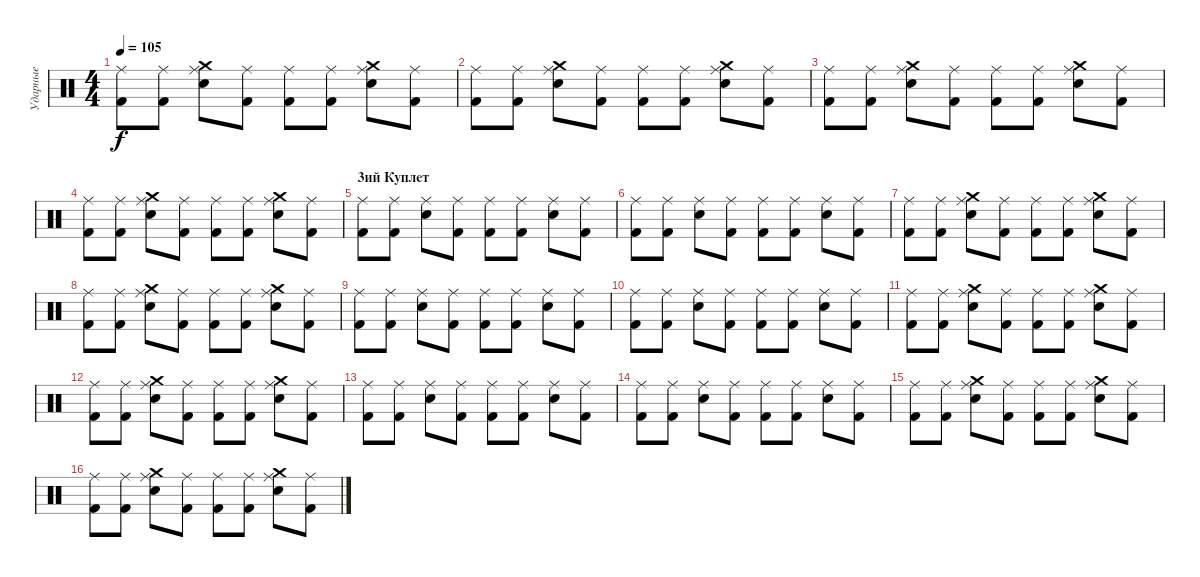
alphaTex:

\track ("Ударные" "Ударные") {instrument percussion}
\staff {score}
\articulation defaults
\ts (4 4)
\tempo 105
\clef neutral
\ks c
("Ride (middle)" "Kick (hit) 2").8{dy f} ("Ride (middle)" "Kick (hit) 2").8 ("Crash medium (hit)" "Ride (middle)" "Electric Snare (hit)").8 ("Ride (middle)" "Kick (hit) 2").8 ("Ride (middle)" "Kick (hit) 2").8 ("Ride (middle)" "Kick (hit) 2").8 ("Crash medium (hit)" "Ride (middle)" "Electric Snare (hit)").8 ("Ride (middle)" "Kick (hit) 2").8 |
("Ride (middle)" "Kick (hit) 2").8 ("Ride (middle)" "Kick (hit) 2").8 ("Crash medium (hit)" "Ride (middle)" "Electric Snare (hit)").8 ("Ride (middle)" "Kick (hit) 2").8 ("Ride (middle)" "Kick (hit) 2").8 ("Ride (middle)" "Kick (hit) 2").8 ("Crash medium (hit)" "Ride (middle)" "Electric Snare (hit)").8 ("Ride (middle)" "Kick (hit) 2").8 |
("Ride (middle)" "Kick (hit) 2").8 ("Ride (middle)" "Kick (hit) 2").8 ("Crash medium (hit)" "Ride (middle)" "Electric Snare (hit)").8 ("Ride (middle)" "Kick (hit) 2").8 ("Ride (middle)" "Kick (hit) 2").8 ("Ride (middle)" "Kick (hit) 2").8 ("Crash medium (hit)" "Ride (middle)" "Electric Snare (hit)").8 ("Ride (middle)" "Kick (hit) 2").8 |
("Ride (middle)" "Kick (hit) 2").8 ("Ride (middle)" "Kick (hit) 2").8 ("Crash medium (hit)" "Ride (middle)" "Electric Snare (hit)").8 ("Ride (middle)" "Kick (hit) 2").8 ("Ride (middle)" "Kick (hit) 2").8 ("Ride (middle)" "Kick (hit) 2").8 ("Crash medium (hit)" "Ride (middle)" "Electric Snare (hit)").8 ("Ride (middle)" "Kick (hit) 2").8 |
\section ("" "3ий Куплет")
("Ride (middle)" "Kick (hit) 2").8 ("Ride (middle)" "Kick (hit) 2").8 ("Ride (middle)" "Electric Snare (hit)").8 ("Ride (middle)" "Kick (hit) 2").8 ("Ride (middle)" "Kick (hit) 2").8 ("Ride (middle)" "Kick (hit) 2").8 ("Ride (middle)" "Electric Snare (hit)").8 ("Ride (middle)" "Kick (hit) 2").8 |
("Ride (middle)" "Kick (hit) 2").8 ("Ride (middle)" "Kick (hit) 2").8 ("Ride (middle)" "Electric Snare (hit)").8 ("Ride (middle)" "Kick (hit) 2").8 ("Ride (middle)" "Kick (hit) 2").8 ("Ride (middle)" "Kick (hit) 2").8 ("Ride (middle)" "Electric Snare (hit)").8 ("Ride (middle)" "Kick (hit) 2").8 |
("Ride (middle)" "Kick (hit) 2").8 ("Ride (middle)" "Kick (hit) 2").8 ("Crash medium (hit)" "Ride (middle)" "Electric Snare (hit)").8 ("Ride (middle)" "Kick (hit) 2").8 ("Ride (middle)" "Kick (hit) 2").8 ("Ride (middle)" "Kick (hit) 2").8 ("Crash medium (hit)" "Ride (middle)" "Electric Snare (hit)").8 ("Ride (middle)" "Kick (hit) 2").8 |
("Ride (middle)" "Kick (hit) 2").8 ("Ride (middle)" "Kick (hit) 2").8 ("Crash medium (hit)" "Ride (middle)" "Electric Snare (hit)").8 ("Ride (middle)" "Kick (hit) 2").8 ("Ride (middle)" "Kick (hit) 2").8 ("Ride (middle)" "Kick (hit) 2").8 ("Crash medium (hit)" "Ride (middle)" "Electric Snare (hit)").8 ("Ride (middle)" "Kick (hit) 2").8 |
("Ride (middle)" "Kick (hit) 2").8 ("Ride (middle)" "Kick (hit) 2").8 ("Ride (middle)" "Electric Snare (hit)").8 ("Ride (middle)" "Kick (hit) 2").8 ("Ride (middle)" "Kick (hit) 2").8 ("Ride (middle)" "Kick (hit) 2").8 ("Ride (middle)" "Electric Snare (hit)").8 ("Ride (middle)" "Kick (hit) 2").8 |
("Ride (middle)" "Kick (hit) 2").8 ("Ride (middle)" "Kick (hit) 2").8 ("Ride (middle)" "Electric Snare (hit)").8 ("Ride (middle)" "Kick (hit) 2").8 ("Ride (middle)" "Kick (hit) 2").8 ("Ride (middle)" "Kick (hit) 2").8 ("Ride (middle)" "Electric Snare (hit)").8 ("Ride (middle)" "Kick (hit) 2").8 |
("Ride (middle)" "Kick (hit) 2").8 ("Ride (middle)" "Kick (hit) 2").8 ("Crash medium (hit)" "Ride (middle)" "Electric Snare (hit)").8 ("Ride (middle)" "Kick (hit) 2").8 ("Ride (middle)" "Kick (hit) 2").8 ("Ride (middle)" "Kick (hit) 2").8 ("Crash medium (hit)" "Ride (middle)" "Electric Snare (hit)").8 ("Ride (middle)" "Kick (hit) 2").8 |
("Ride (middle)" "Kick (hit) 2").8 ("Ride (middle)" "Kick (hit) 2").8 ("Crash medium (hit)" "Ride (middle)" "Electric Snare (hit)").8 ("Ride (middle)" "Kick (hit) 2").8 ("Ride (middle)" "Kick (hit) 2").8 ("Ride (middle)" "Kick (hit) 2").8 ("Crash medium (hit)" "Ride (middle)" "Electric Snare (hit)").8 ("Ride (middle)" "Kick (hit) 2").8 |
("Ride (middle)" "Kick (hit) 2").8 ("Ride (middle)" "Kick (hit) 2").8 ("Ride (middle)" "Electric Snare (hit)").8 ("Ride (middle)" "Kick (hit) 2").8 ("Ride (middle)" "Kick (hit) 2").8 ("Ride (middle)" "Kick (hit) 2").8 ("Ride (middle)" "Electric Snare (hit)").8 ("Ride (middle)" "Kick (hit) 2").8 |
("Ride (middle)" "Kick (hit) 2").8 ("Ride (middle)" "Kick (hit) 2").8 ("Ride (middle)" "Electric Snare (hit)").8 ("Ride (middle)" "Kick (hit) 2").8 ("Ride (middle)" "Kick (hit) 2").8 ("Ride (middle)" "Kick (hit) 2").8 ("Ride (middle)" "Electric Snare (hit)").8 ("Ride (middle)" "Kick (hit) 2").8 |
("Ride (middle)" "Kick (hit) 2").8 ("Ride (middle)" "Kick (hit) 2").8 ("Crash medium (hit)" "Ride (middle)" "Electric Snare (hit)").8 ("Ride (middle)" "Kick (hit) 2").8 ("Ride (middle)" "Kick (hit) 2").8 ("Ride (middle)" "Kick (hit) 2").8 ("Crash medium (hit)" "Ride (middle)" "Electric Snare (hit)").8 ("Ride (middle)" "Kick (hit) 2").8 |
("Ride (middle)" "Kick (hit) 2").8 ("Ride (middle)" "Kick (hit) 2").8 ("Crash medium (hit)" "Ride (middle)" "Electric Snare (hit)").8 ("Ride (middle)" "Kick (hit) 2").8 ("Ride (middle)" "Kick (hit) 2").8 ("Ride (middle)" "Kick (hit) 2").8 ("Crash medium (hit)" "Ride (middle)" "Electric Snare (hit)").8 ("Ride (middle)" "Kick (hit) 2").8
